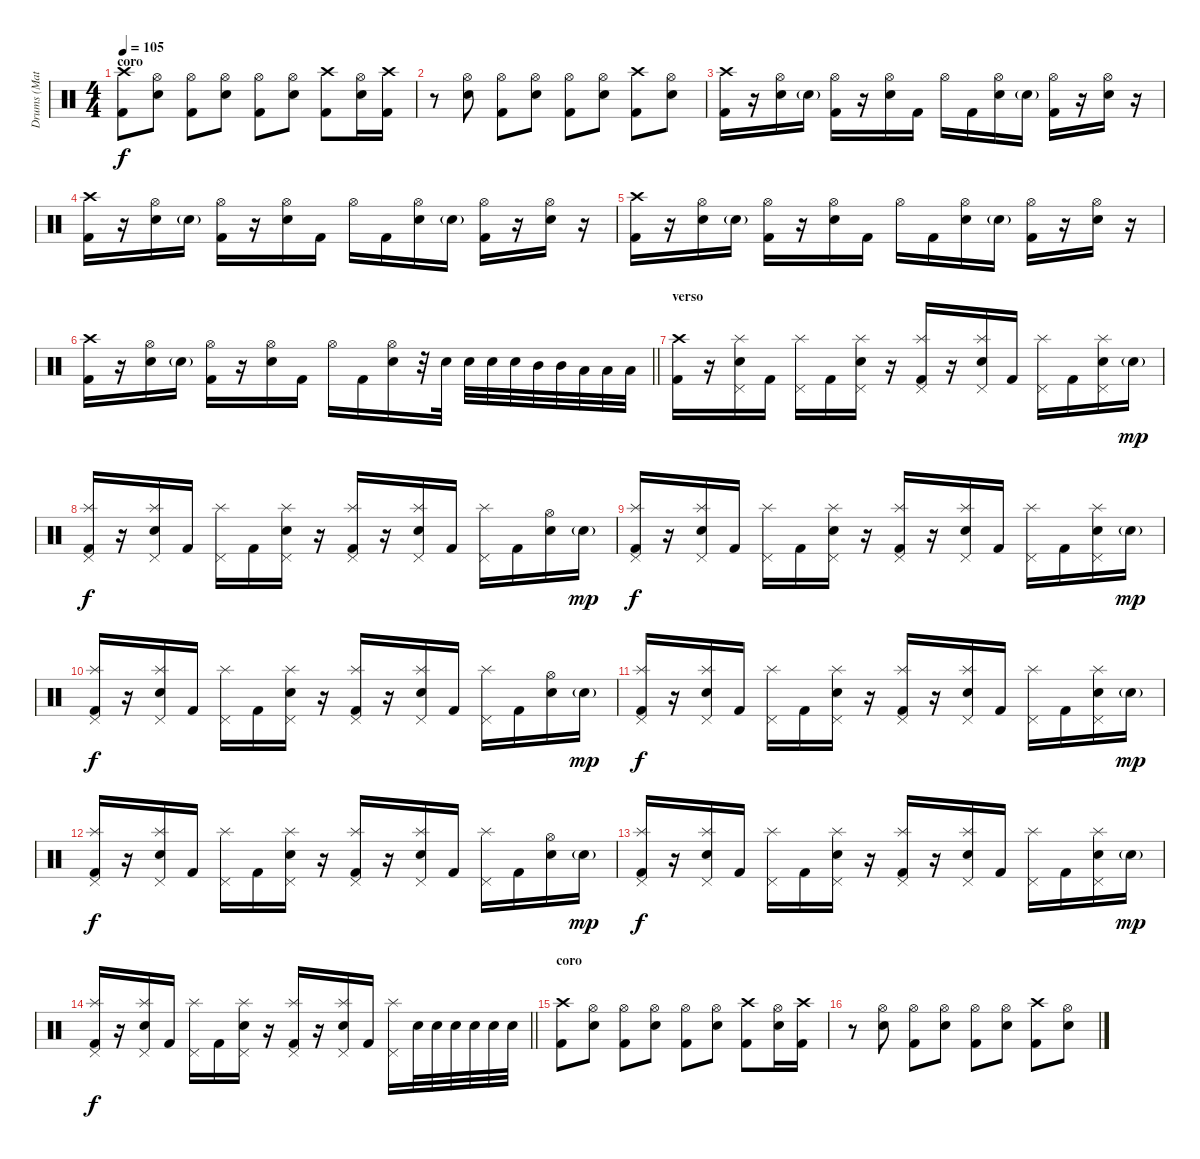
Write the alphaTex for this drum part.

\track ("Drums (Matt Sorum)" "Drums (Mat") {instrument percussion}
\staff {score}
\articulation defaults
\ts (4 4)
\section ("" "coro")
\tempo 105
\clef neutral
\ks c
("Crash high (hit)" "Kick (hit) 2").8{dy f} ("Hi-Hat (open)" "Electric Snare (hit)").8 ("Hi-Hat (open)" "Kick (hit) 2").8 ("Hi-Hat (open)" "Electric Snare (hit)").8 ("Hi-Hat (open)" "Kick (hit) 2").8 ("Hi-Hat (open)" "Electric Snare (hit)").8 ("Crash high (hit)" "Kick (hit) 2").8 ("Hi-Hat (open)" "Electric Snare (hit)").16 ("Crash high (hit)" "Kick (hit) 2").16 |
r.8 ("Hi-Hat (open)" "Electric Snare (hit)").8 ("Hi-Hat (open)" "Kick (hit) 2").8 ("Hi-Hat (open)" "Electric Snare (hit)").8 ("Hi-Hat (open)" "Kick (hit) 2").8 ("Hi-Hat (open)" "Electric Snare (hit)").8 ("Crash high (hit)" "Kick (hit) 2").8 ("Hi-Hat (open)" "Electric Snare (hit)").8 |
("Crash high (hit)" "Kick (hit) 2").16 r.16 ("Hi-Hat (open)" "Electric Snare (hit)").16 "Electric Snare (hit)"{g}.16 ("Hi-Hat (open)" "Kick (hit) 2").16 r.16 ("Hi-Hat (open)" "Electric Snare (hit)").16 "Kick (hit) 2".16 "Hi-Hat (open)".16 "Kick (hit) 2".16 ("Hi-Hat (open)" "Electric Snare (hit)").16 "Electric Snare (hit)"{g}.16 ("Hi-Hat (open)" "Kick (hit) 2").16 r.16 ("Hi-Hat (open)" "Electric Snare (hit)").16 r.16 |
("Crash high (hit)" "Kick (hit) 2").16 r.16 ("Hi-Hat (open)" "Electric Snare (hit)").16 "Electric Snare (hit)"{g}.16 ("Hi-Hat (open)" "Kick (hit) 2").16 r.16 ("Hi-Hat (open)" "Electric Snare (hit)").16 "Kick (hit) 2".16 "Hi-Hat (open)".16 "Kick (hit) 2".16 ("Hi-Hat (open)" "Electric Snare (hit)").16 "Electric Snare (hit)"{g}.16 ("Hi-Hat (open)" "Kick (hit) 2").16 r.16 ("Hi-Hat (open)" "Electric Snare (hit)").16 r.16 |
("Crash high (hit)" "Kick (hit) 2").16 r.16 ("Hi-Hat (open)" "Electric Snare (hit)").16 "Electric Snare (hit)"{g}.16 ("Hi-Hat (open)" "Kick (hit) 2").16 r.16 ("Hi-Hat (open)" "Electric Snare (hit)").16 "Kick (hit) 2".16 "Hi-Hat (open)".16 "Kick (hit) 2".16 ("Hi-Hat (open)" "Electric Snare (hit)").16 "Electric Snare (hit)"{g}.16 ("Hi-Hat (open)" "Kick (hit) 2").16 r.16 ("Hi-Hat (open)" "Electric Snare (hit)").16 r.16 |
\barLineRight lightlight
("Crash high (hit)" "Kick (hit) 2").16 r.16 ("Hi-Hat (open)" "Electric Snare (hit)").16 "Electric Snare (hit)"{g}.16 ("Hi-Hat (open)" "Kick (hit) 2").16 r.16 ("Hi-Hat (open)" "Electric Snare (hit)").16 "Kick (hit) 2".16 "Hi-Hat (open)".16 "Kick (hit) 2".16 ("Hi-Hat (open)" "Electric Snare (hit)").16 r.32 "Electric Snare (hit)".32 "Electric Snare (hit)".32 "Electric Snare (hit)".32 "Electric Snare (hit)".32 "Mid Tom (hit)".32 "Mid Tom (hit)".32 "Low Tom (hit)".32 "Low Tom (hit)".32 "Low Floor Tom (hit)".32 |
\section ("" "verso")
("Crash high (hit)" "Kick (hit) 2").16 r.16 ("Splash (hit)" "Pedal Hi-Hat (hit)" "Electric Snare (hit)").16 "Kick (hit) 2".16 ("Splash (hit)" "Pedal Hi-Hat (hit)").16 "Kick (hit) 2".16 ("Splash (hit)" "Pedal Hi-Hat (hit)" "Electric Snare (hit)").16 r.16 ("Splash (hit)" "Pedal Hi-Hat (hit)" "Kick (hit) 2").16 r.16 ("Splash (hit)" "Pedal Hi-Hat (hit)" "Electric Snare (hit)").16 "Kick (hit) 2".16 ("Splash (hit)" "Pedal Hi-Hat (hit)").16 "Kick (hit) 2".16 ("Splash (hit)" "Pedal Hi-Hat (hit)" "Electric Snare (hit)").16 "Electric Snare (hit)"{g}.16{dy mp} |
("Splash (hit)" "Pedal Hi-Hat (hit)" "Kick (hit) 2").16{dy f} r.16 ("Splash (hit)" "Pedal Hi-Hat (hit)" "Electric Snare (hit)").16 "Kick (hit) 2".16 ("Splash (hit)" "Pedal Hi-Hat (hit)").16 "Kick (hit) 2".16 ("Splash (hit)" "Pedal Hi-Hat (hit)" "Electric Snare (hit)").16 r.16 ("Splash (hit)" "Pedal Hi-Hat (hit)" "Kick (hit) 2").16 r.16 ("Splash (hit)" "Pedal Hi-Hat (hit)" "Electric Snare (hit)").16 "Kick (hit) 2".16 ("Splash (hit)" "Pedal Hi-Hat (hit)").16 "Kick (hit) 2".16 ("Hi-Hat (open)" "Electric Snare (hit)").16 "Electric Snare (hit)"{g}.16{dy mp} |
("Splash (hit)" "Pedal Hi-Hat (hit)" "Kick (hit) 2").16{dy f} r.16 ("Splash (hit)" "Pedal Hi-Hat (hit)" "Electric Snare (hit)").16 "Kick (hit) 2".16 ("Splash (hit)" "Pedal Hi-Hat (hit)").16 "Kick (hit) 2".16 ("Splash (hit)" "Pedal Hi-Hat (hit)" "Electric Snare (hit)").16 r.16 ("Splash (hit)" "Pedal Hi-Hat (hit)" "Kick (hit) 2").16 r.16 ("Splash (hit)" "Pedal Hi-Hat (hit)" "Electric Snare (hit)").16 "Kick (hit) 2".16 ("Splash (hit)" "Pedal Hi-Hat (hit)").16 "Kick (hit) 2".16 ("Splash (hit)" "Pedal Hi-Hat (hit)" "Electric Snare (hit)").16 "Electric Snare (hit)"{g}.16{dy mp} |
("Splash (hit)" "Pedal Hi-Hat (hit)" "Kick (hit) 2").16{dy f} r.16 ("Splash (hit)" "Pedal Hi-Hat (hit)" "Electric Snare (hit)").16 "Kick (hit) 2".16 ("Splash (hit)" "Pedal Hi-Hat (hit)").16 "Kick (hit) 2".16 ("Splash (hit)" "Pedal Hi-Hat (hit)" "Electric Snare (hit)").16 r.16 ("Splash (hit)" "Pedal Hi-Hat (hit)" "Kick (hit) 2").16 r.16 ("Splash (hit)" "Pedal Hi-Hat (hit)" "Electric Snare (hit)").16 "Kick (hit) 2".16 ("Splash (hit)" "Pedal Hi-Hat (hit)").16 "Kick (hit) 2".16 ("Hi-Hat (open)" "Electric Snare (hit)").16 "Electric Snare (hit)"{g}.16{dy mp} |
("Splash (hit)" "Pedal Hi-Hat (hit)" "Kick (hit) 2").16{dy f} r.16 ("Splash (hit)" "Pedal Hi-Hat (hit)" "Electric Snare (hit)").16 "Kick (hit) 2".16 ("Splash (hit)" "Pedal Hi-Hat (hit)").16 "Kick (hit) 2".16 ("Splash (hit)" "Pedal Hi-Hat (hit)" "Electric Snare (hit)").16 r.16 ("Splash (hit)" "Pedal Hi-Hat (hit)" "Kick (hit) 2").16 r.16 ("Splash (hit)" "Pedal Hi-Hat (hit)" "Electric Snare (hit)").16 "Kick (hit) 2".16 ("Splash (hit)" "Pedal Hi-Hat (hit)").16 "Kick (hit) 2".16 ("Splash (hit)" "Pedal Hi-Hat (hit)" "Electric Snare (hit)").16 "Electric Snare (hit)"{g}.16{dy mp} |
("Splash (hit)" "Pedal Hi-Hat (hit)" "Kick (hit) 2").16{dy f} r.16 ("Splash (hit)" "Pedal Hi-Hat (hit)" "Electric Snare (hit)").16 "Kick (hit) 2".16 ("Splash (hit)" "Pedal Hi-Hat (hit)").16 "Kick (hit) 2".16 ("Splash (hit)" "Pedal Hi-Hat (hit)" "Electric Snare (hit)").16 r.16 ("Splash (hit)" "Pedal Hi-Hat (hit)" "Kick (hit) 2").16 r.16 ("Splash (hit)" "Pedal Hi-Hat (hit)" "Electric Snare (hit)").16 "Kick (hit) 2".16 ("Splash (hit)" "Pedal Hi-Hat (hit)").16 "Kick (hit) 2".16 ("Hi-Hat (open)" "Electric Snare (hit)").16 "Electric Snare (hit)"{g}.16{dy mp} |
("Splash (hit)" "Pedal Hi-Hat (hit)" "Kick (hit) 2").16{dy f} r.16 ("Splash (hit)" "Pedal Hi-Hat (hit)" "Electric Snare (hit)").16 "Kick (hit) 2".16 ("Splash (hit)" "Pedal Hi-Hat (hit)").16 "Kick (hit) 2".16 ("Splash (hit)" "Pedal Hi-Hat (hit)" "Electric Snare (hit)").16 r.16 ("Splash (hit)" "Pedal Hi-Hat (hit)" "Kick (hit) 2").16 r.16 ("Splash (hit)" "Pedal Hi-Hat (hit)" "Electric Snare (hit)").16 "Kick (hit) 2".16 ("Splash (hit)" "Pedal Hi-Hat (hit)").16 "Kick (hit) 2".16 ("Splash (hit)" "Pedal Hi-Hat (hit)" "Electric Snare (hit)").16 "Electric Snare (hit)"{g}.16{dy mp} |
\barLineRight lightlight
("Splash (hit)" "Pedal Hi-Hat (hit)" "Kick (hit) 2").16{dy f} r.16 ("Splash (hit)" "Pedal Hi-Hat (hit)" "Electric Snare (hit)").16 "Kick (hit) 2".16 ("Splash (hit)" "Pedal Hi-Hat (hit)").16 "Kick (hit) 2".16 ("Splash (hit)" "Pedal Hi-Hat (hit)" "Electric Snare (hit)").16 r.16 ("Splash (hit)" "Pedal Hi-Hat (hit)" "Kick (hit) 2").16 r.16 ("Splash (hit)" "Pedal Hi-Hat (hit)" "Electric Snare (hit)").16 "Kick (hit) 2".16 ("Splash (hit)" "Pedal Hi-Hat (hit)").16 "Electric Snare (hit)".32 "Electric Snare (hit)".32 "Electric Snare (hit)".32 "Electric Snare (hit)".32 "Electric Snare (hit)".32 "Electric Snare (hit)".32 |
\section ("" "coro")
("Crash high (hit)" "Kick (hit) 2").8 ("Hi-Hat (open)" "Electric Snare (hit)").8 ("Hi-Hat (open)" "Kick (hit) 2").8 ("Hi-Hat (open)" "Electric Snare (hit)").8 ("Hi-Hat (open)" "Kick (hit) 2").8 ("Hi-Hat (open)" "Electric Snare (hit)").8 ("Crash high (hit)" "Kick (hit) 2").8 ("Hi-Hat (open)" "Electric Snare (hit)").16 ("Crash high (hit)" "Kick (hit) 2").16 |
r.8 ("Hi-Hat (open)" "Electric Snare (hit)").8 ("Hi-Hat (open)" "Kick (hit) 2").8 ("Hi-Hat (open)" "Electric Snare (hit)").8 ("Hi-Hat (open)" "Kick (hit) 2").8 ("Hi-Hat (open)" "Electric Snare (hit)").8 ("Crash high (hit)" "Kick (hit) 2").8 ("Hi-Hat (open)" "Electric Snare (hit)").8
